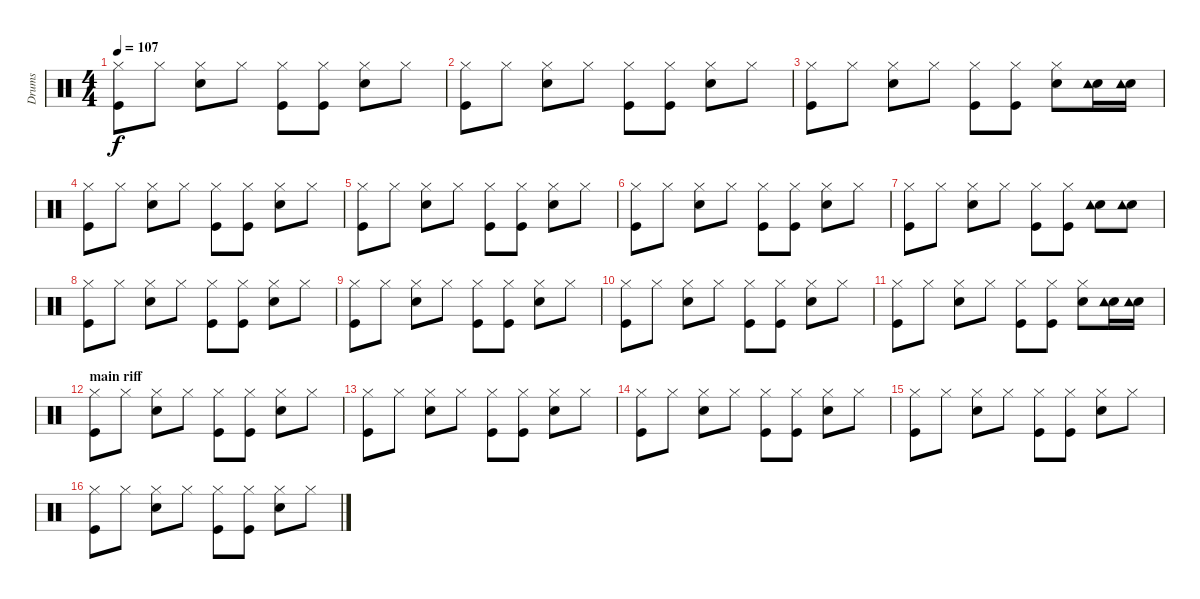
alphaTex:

\track ("Drums" "Drums") {instrument percussion}
\staff {score}
\articulation defaults
\ts (4 4)
\tempo 107
\clef neutral
\ks c
("Kick (hit)" "Hi-Hat (closed)").8{dy f} "Hi-Hat (closed)".8 ("Electric Snare (hit)" "Hi-Hat (closed)").8 "Hi-Hat (closed)".8 ("Kick (hit)" "Hi-Hat (closed)").8 ("Kick (hit)" "Hi-Hat (closed)").8 ("Electric Snare (hit)" "Hi-Hat (closed)").8 "Hi-Hat (closed)".8 |
("Kick (hit)" "Hi-Hat (closed)").8 "Hi-Hat (closed)".8 ("Electric Snare (hit)" "Hi-Hat (closed)").8 "Hi-Hat (closed)".8 ("Kick (hit)" "Hi-Hat (closed)").8 ("Kick (hit)" "Hi-Hat (closed)").8 ("Electric Snare (hit)" "Hi-Hat (closed)").8 "Hi-Hat (closed)".8 |
("Kick (hit)" "Hi-Hat (closed)").8 "Hi-Hat (closed)".8 ("Electric Snare (hit)" "Hi-Hat (closed)").8 "Hi-Hat (closed)".8 ("Kick (hit)" "Hi-Hat (closed)").8 ("Kick (hit)" "Hi-Hat (closed)").8 ("Electric Snare (hit)" "Hi-Hat (closed)").8 ("Electric Snare (hit)" "Tambourine (hit)").16 ("Electric Snare (hit)" "Tambourine (hit)").16 |
("Kick (hit)" "Hi-Hat (closed)").8 "Hi-Hat (closed)".8 ("Electric Snare (hit)" "Hi-Hat (closed)").8 "Hi-Hat (closed)".8 ("Kick (hit)" "Hi-Hat (closed)").8 ("Kick (hit)" "Hi-Hat (closed)").8 ("Electric Snare (hit)" "Hi-Hat (closed)").8 "Hi-Hat (closed)".8 |
("Kick (hit)" "Hi-Hat (closed)").8 "Hi-Hat (closed)".8 ("Electric Snare (hit)" "Hi-Hat (closed)").8 "Hi-Hat (closed)".8 ("Kick (hit)" "Hi-Hat (closed)").8 ("Kick (hit)" "Hi-Hat (closed)").8 ("Electric Snare (hit)" "Hi-Hat (closed)").8 "Hi-Hat (closed)".8 |
("Kick (hit)" "Hi-Hat (closed)").8 "Hi-Hat (closed)".8 ("Electric Snare (hit)" "Hi-Hat (closed)").8 "Hi-Hat (closed)".8 ("Kick (hit)" "Hi-Hat (closed)").8 ("Kick (hit)" "Hi-Hat (closed)").8 ("Electric Snare (hit)" "Hi-Hat (closed)").8 "Hi-Hat (closed)".8 |
("Kick (hit)" "Hi-Hat (closed)").8 "Hi-Hat (closed)".8 ("Electric Snare (hit)" "Hi-Hat (closed)").8 "Hi-Hat (closed)".8 ("Kick (hit)" "Hi-Hat (closed)").8 ("Kick (hit)" "Hi-Hat (closed)").8 ("Electric Snare (hit)" "Tambourine (hit)").8 ("Electric Snare (hit)" "Tambourine (hit)").8 |
("Kick (hit)" "Hi-Hat (closed)").8 "Hi-Hat (closed)".8 ("Electric Snare (hit)" "Hi-Hat (closed)").8 "Hi-Hat (closed)".8 ("Kick (hit)" "Hi-Hat (closed)").8 ("Kick (hit)" "Hi-Hat (closed)").8 ("Electric Snare (hit)" "Hi-Hat (closed)").8 "Hi-Hat (closed)".8 |
("Kick (hit)" "Hi-Hat (closed)").8 "Hi-Hat (closed)".8 ("Electric Snare (hit)" "Hi-Hat (closed)").8 "Hi-Hat (closed)".8 ("Kick (hit)" "Hi-Hat (closed)").8 ("Kick (hit)" "Hi-Hat (closed)").8 ("Electric Snare (hit)" "Hi-Hat (closed)").8 "Hi-Hat (closed)".8 |
("Kick (hit)" "Hi-Hat (closed)").8 "Hi-Hat (closed)".8 ("Electric Snare (hit)" "Hi-Hat (closed)").8 "Hi-Hat (closed)".8 ("Kick (hit)" "Hi-Hat (closed)").8 ("Kick (hit)" "Hi-Hat (closed)").8 ("Electric Snare (hit)" "Hi-Hat (closed)").8 "Hi-Hat (closed)".8 |
("Kick (hit)" "Hi-Hat (closed)").8 "Hi-Hat (closed)".8 ("Electric Snare (hit)" "Hi-Hat (closed)").8 "Hi-Hat (closed)".8 ("Kick (hit)" "Hi-Hat (closed)").8 ("Kick (hit)" "Hi-Hat (closed)").8 ("Electric Snare (hit)" "Hi-Hat (closed)").8 ("Electric Snare (hit)" "Tambourine (hit)").16 ("Electric Snare (hit)" "Tambourine (hit)").16 |
\section ("" "main riff")
("Kick (hit)" "Hi-Hat (closed)").8 "Hi-Hat (closed)".8 ("Electric Snare (hit)" "Hi-Hat (closed)").8 "Hi-Hat (closed)".8 ("Kick (hit)" "Hi-Hat (closed)").8 ("Kick (hit)" "Hi-Hat (closed)").8 ("Electric Snare (hit)" "Hi-Hat (closed)").8 "Hi-Hat (closed)".8 |
("Kick (hit)" "Hi-Hat (closed)").8 "Hi-Hat (closed)".8 ("Electric Snare (hit)" "Hi-Hat (closed)").8 "Hi-Hat (closed)".8 ("Kick (hit)" "Hi-Hat (closed)").8 ("Kick (hit)" "Hi-Hat (closed)").8 ("Electric Snare (hit)" "Hi-Hat (closed)").8 "Hi-Hat (closed)".8 |
("Kick (hit)" "Hi-Hat (closed)").8 "Hi-Hat (closed)".8 ("Electric Snare (hit)" "Hi-Hat (closed)").8 "Hi-Hat (closed)".8 ("Kick (hit)" "Hi-Hat (closed)").8 ("Kick (hit)" "Hi-Hat (closed)").8 ("Electric Snare (hit)" "Hi-Hat (closed)").8 "Hi-Hat (closed)".8 |
("Kick (hit)" "Hi-Hat (closed)").8 "Hi-Hat (closed)".8 ("Electric Snare (hit)" "Hi-Hat (closed)").8 "Hi-Hat (closed)".8 ("Kick (hit)" "Hi-Hat (closed)").8 ("Kick (hit)" "Hi-Hat (closed)").8 ("Electric Snare (hit)" "Hi-Hat (closed)").8 "Hi-Hat (closed)".8 |
("Kick (hit)" "Hi-Hat (closed)").8 "Hi-Hat (closed)".8 ("Electric Snare (hit)" "Hi-Hat (closed)").8 "Hi-Hat (closed)".8 ("Kick (hit)" "Hi-Hat (closed)").8 ("Kick (hit)" "Hi-Hat (closed)").8 ("Electric Snare (hit)" "Hi-Hat (closed)").8 "Hi-Hat (closed)".8
